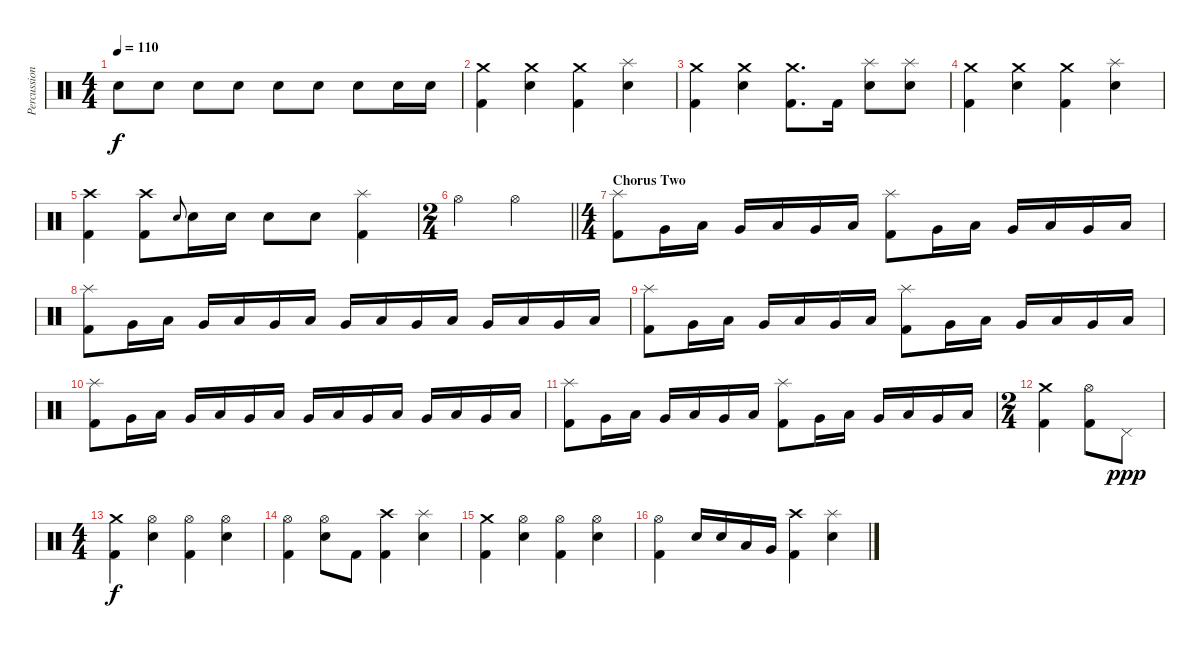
\track ("Percussion" "Percussion") {instrument percussion}
\staff {score}
\articulation defaults
\ts (4 4)
\tempo 110
\clef neutral
\ks c "Electric Snare (hit)".8{dy f} "Electric Snare (hit)".8 "Electric Snare (hit)".8 "Electric Snare (hit)".8 "Electric Snare (hit)".8 "Electric Snare (hit)".8 "Electric Snare (hit)".8 "Electric Snare (hit)".16 "Electric Snare (hit)".16
|
("Crash medium (hit)" "Kick (hit) 2").4 ("Crash medium (hit)" "Electric Snare (hit)").4 ("Crash medium (hit)" "Kick (hit) 2").4 ("Splash (hit)" "Electric Snare (hit)").4 |
("Crash medium (hit)" "Kick (hit) 2").4 ("Crash medium (hit)" "Electric Snare (hit)").4 ("Crash medium (hit)" "Kick (hit) 2").8{d} "Kick (hit) 2".16 ("Splash (hit)" "Electric Snare (hit)").8 ("Splash (hit)" "Electric Snare (hit)").8 |
("Crash medium (hit)" "Kick (hit) 2").4 ("Crash medium (hit)" "Electric Snare (hit)").4 ("Crash medium (hit)" "Kick (hit) 2").4 ("Splash (hit)" "Electric Snare (hit)").4 |
("Crash high (hit)" "Kick (hit) 2").4 ("Crash high (hit)" "Kick (hit) 2").8 "Electric Snare (hit)".8{gr onbeat} "Electric Snare (hit)".16 "Electric Snare (hit)".16 "Electric Snare (hit)".8 "Electric Snare (hit)".8 ("Splash (hit)" "Kick (hit) 2").4 |
\ts (2 4)
\barLineRight lightlight "Hi-Hat (open)".4 "Hi-Hat (open)".4
|
\ts (4 4)
\section ("" "Chorus Two")
("Splash (hit)" "Kick (hit) 2").8 "Very Low Tom (hit)".16 "Low Tom (hit)".16 "Very Low Tom (hit)".16 "Low Floor Tom (hit)".16 "Very Low Tom (hit)".16 "Low Tom (hit)".16 ("Splash (hit)" "Kick (hit) 2").8 "Very Low Tom (hit)".16 "Low Tom (hit)".16 "Very Low Tom (hit)".16 "Low Floor Tom (hit)".16 "Very Low Tom (hit)".16 "Low Tom (hit)".16 |
("Splash (hit)" "Kick (hit) 2").8 "Very Low Tom (hit)".16 "Low Tom (hit)".16 "Very Low Tom (hit)".16 "Low Floor Tom (hit)".16 "Very Low Tom (hit)".16 "Low Tom (hit)".16 "Very Low Tom (hit)".16 "Low Floor Tom (hit)".16 "Very Low Tom (hit)".16 "Low Tom (hit)".16 "Very Low Tom (hit)".16 "Low Floor Tom (hit)".16 "Very Low Tom (hit)".16 "Low Tom (hit)".16 |
("Splash (hit)" "Kick (hit) 2").8 "Very Low Tom (hit)".16 "Low Tom (hit)".16 "Very Low Tom (hit)".16 "Low Floor Tom (hit)".16 "Very Low Tom (hit)".16 "Low Tom (hit)".16 ("Splash (hit)" "Kick (hit) 2").8 "Very Low Tom (hit)".16 "Low Tom (hit)".16 "Very Low Tom (hit)".16 "Low Floor Tom (hit)".16 "Very Low Tom (hit)".16 "Low Tom (hit)".16 |
("Splash (hit)" "Kick (hit) 2").8 "Very Low Tom (hit)".16 "Low Tom (hit)".16 "Very Low Tom (hit)".16 "Low Floor Tom (hit)".16 "Very Low Tom (hit)".16 "Low Tom (hit)".16 "Very Low Tom (hit)".16 "Low Floor Tom (hit)".16 "Very Low Tom (hit)".16 "Low Tom (hit)".16 "Very Low Tom (hit)".16 "Low Floor Tom (hit)".16 "Very Low Tom (hit)".16 "Low Tom (hit)".16 |
("Splash (hit)" "Kick (hit) 2").8 "Very Low Tom (hit)".16 "Low Tom (hit)".16 "Very Low Tom (hit)".16 "Low Floor Tom (hit)".16 "Very Low Tom (hit)".16 "Low Tom (hit)".16 ("Splash (hit)" "Kick (hit) 2").8 "Very Low Tom (hit)".16 "Low Tom (hit)".16 "Very Low Tom (hit)".16 "Low Floor Tom (hit)".16 "Very Low Tom (hit)".16 "Low Tom (hit)".16 |
\ts (2 4)
("Crash medium (hit)" "Kick (hit) 2").4 ("Hi-Hat (open)" "Kick (hit) 2").8 "Pedal Hi-Hat (hit)".8{dy ppp} |
\ts (4 4)
("Crash medium (hit)" "Kick (hit) 2").4{dy f} ("Hi-Hat (open)" "Electric Snare (hit)").4 ("Hi-Hat (open)" "Kick (hit) 2").4 ("Hi-Hat (open)" "Electric Snare (hit)").4 |
("Hi-Hat (open)" "Kick (hit) 2").4 ("Hi-Hat (open)" "Electric Snare (hit)").8 "Kick (hit) 2".8 ("Crash high (hit)" "Kick (hit) 2").4 ("Splash (hit)" "Electric Snare (hit)").4 |
("Crash medium (hit)" "Kick (hit) 2").4 ("Hi-Hat (open)" "Electric Snare (hit)").4 ("Hi-Hat (open)" "Kick (hit) 2").4 ("Hi-Hat (open)" "Electric Snare (hit)").4 |
("Hi-Hat (open)" "Kick (hit) 2").4 "Electric Snare (hit)".16 "Electric Snare (hit)".16 "Low Tom (hit)".16 "Very Low Tom (hit)".16 ("Crash high (hit)" "Kick (hit) 2").4 ("Splash (hit)" "Electric Snare (hit)").4
